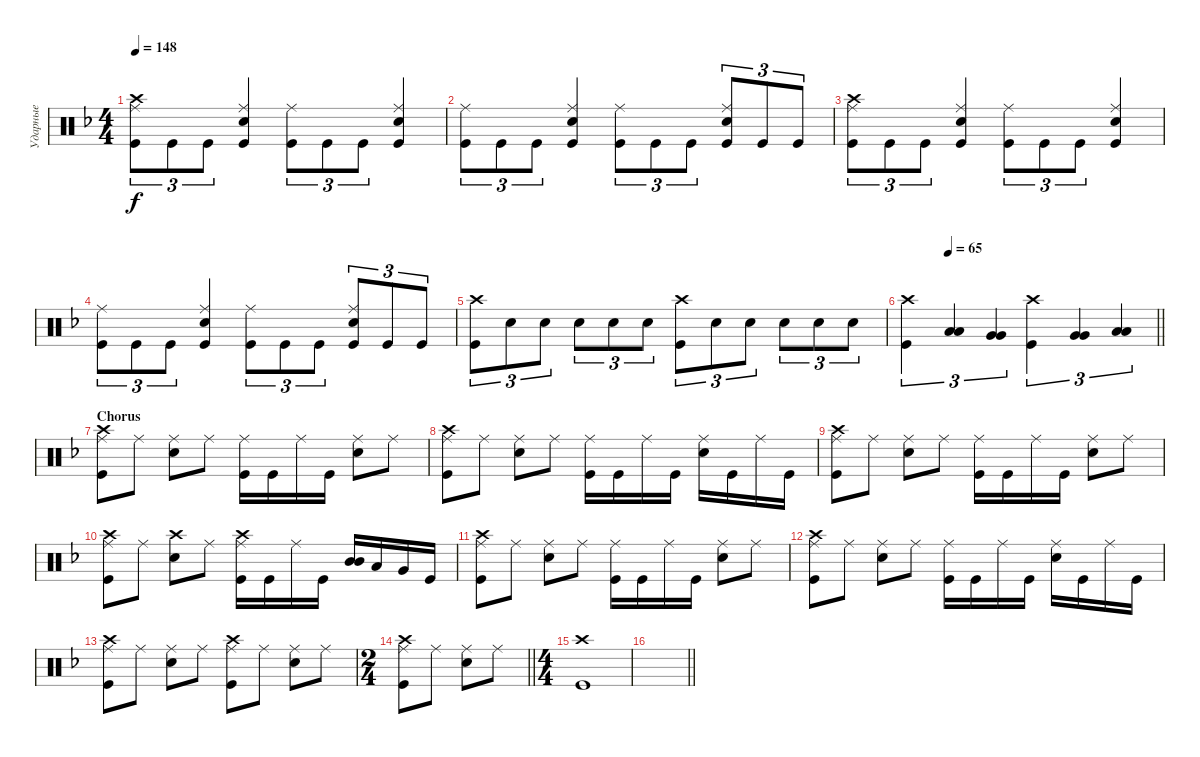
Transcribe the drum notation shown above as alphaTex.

\track ("Ударные" "Ударные") {instrument percussion}
\staff {score}
\articulation defaults
\ts (4 4)
\tempo 148
\clef neutral
\ks dminor
("Kick (hit)" "Ride (middle)" "Crash high (hit)").8{tu (3 2) dy f} "Kick (hit)".8{tu (3 2)} "Kick (hit)".8{tu (3 2)} ("Kick (hit)" "Snare (hit) 2" "Ride (middle)").4 ("Kick (hit)" "Ride (middle)").8{tu (3 2)} "Kick (hit)".8{tu (3 2)} "Kick (hit)".8{tu (3 2)} ("Kick (hit)" "Snare (hit) 2" "Ride (middle)").4 |
("Kick (hit)" "Ride (middle)").8{tu (3 2)} "Kick (hit)".8{tu (3 2)} "Kick (hit)".8{tu (3 2)} ("Kick (hit)" "Snare (hit) 2" "Ride (middle)").4 ("Kick (hit)" "Ride (middle)").8{tu (3 2)} "Kick (hit)".8{tu (3 2)} "Kick (hit)".8{tu (3 2)} ("Kick (hit)" "Snare (hit) 2" "Ride (middle)").8{tu (3 2)} "Kick (hit)".8{tu (3 2)} "Kick (hit)".8{tu (3 2)} |
("Kick (hit)" "Ride (middle)" "Crash high (hit)").8{tu (3 2)} "Kick (hit)".8{tu (3 2)} "Kick (hit)".8{tu (3 2)} ("Kick (hit)" "Snare (hit) 2" "Ride (middle)").4 ("Kick (hit)" "Ride (middle)").8{tu (3 2)} "Kick (hit)".8{tu (3 2)} "Kick (hit)".8{tu (3 2)} ("Kick (hit)" "Snare (hit) 2" "Ride (middle)").4 |
("Kick (hit)" "Ride (middle)").8{tu (3 2)} "Kick (hit)".8{tu (3 2)} "Kick (hit)".8{tu (3 2)} ("Kick (hit)" "Snare (hit) 2" "Ride (middle)").4 ("Kick (hit)" "Ride (middle)").8{tu (3 2)} "Kick (hit)".8{tu (3 2)} "Kick (hit)".8{tu (3 2)} ("Kick (hit)" "Snare (hit) 2" "Ride (middle)").8{tu (3 2)} "Kick (hit)".8{tu (3 2)} "Kick (hit)".8{tu (3 2)} |
("Kick (hit)" "Crash high (hit)").8{tu (3 2)} "Snare (hit) 2".8{tu (3 2)} "Snare (hit) 2".8{tu (3 2)} "Snare (hit) 2".8{tu (3 2)} "Snare (hit) 2".8{tu (3 2)} "Snare (hit) 2".8{tu (3 2)} ("Kick (hit)" "Crash high (hit)").8{tu (3 2)} "Snare (hit) 2".8{tu (3 2)} "Snare (hit) 2".8{tu (3 2)} "Snare (hit) 2".8{tu (3 2)} "Snare (hit) 2".8{tu (3 2)} "Snare (hit) 2".8{tu (3 2)} |
\tempo (65 0.16666666666666666)
\barLineRight lightlight
("Kick (hit)" "Crash high (hit)").4{tu (3 2)} ("Low Tom (hit)" "Low Tom (hit)").4{tu (3 2) bd 60} ("Very Low Tom (hit)" "Very Low Tom (hit)").4{tu (3 2) bd 60} ("Kick (hit)" "Crash high (hit)").4{tu (3 2)} ("Very Low Tom (hit)" "Very Low Tom (hit)").4{tu (3 2) bd 60} ("Low Floor Tom (hit)" "Low Floor Tom (hit)").4{tu (3 2) bd 60} |
\section ("" "Chorus")
("Kick (hit)" "Crash high (hit)" "Ride (middle)").8 "Ride (middle)".8 ("Ride (middle)" "Snare (hit) 2").8 "Ride (middle)".8 ("Ride (middle)" "Kick (hit)").16 "Kick (hit)".16 "Ride (middle)".16 "Kick (hit)".16 ("Snare (hit) 2" "Ride (middle)").8 "Ride (middle)".8 |
("Kick (hit)" "Crash high (hit)" "Ride (middle)").8 "Ride (middle)".8 ("Ride (middle)" "Snare (hit) 2").8 "Ride (middle)".8 ("Ride (middle)" "Kick (hit)").16 "Kick (hit)".16 "Ride (middle)".16 "Kick (hit)".16 ("Snare (hit) 2" "Ride (middle)").16 "Kick (hit)".16 "Ride (middle)".16 "Kick (hit)".16 |
("Kick (hit)" "Crash high (hit)" "Ride (middle)").8 "Ride (middle)".8 ("Ride (middle)" "Snare (hit) 2").8 "Ride (middle)".8 ("Ride (middle)" "Kick (hit)").16 "Kick (hit)".16 "Ride (middle)".16 "Kick (hit)".16 ("Snare (hit) 2" "Ride (middle)").8 "Ride (middle)".8 |
("Kick (hit)" "Ride (middle)" "Crash high (hit)").8 "Ride (middle)".8 ("Snare (hit) 2" "Crash high (hit)").8 "Ride (middle)".8 ("Ride (middle)" "Kick (hit)" "Crash high (hit)").16 "Kick (hit)".16 "Ride (middle)".16 "Kick (hit)".16 ("Mid Tom (hit)" "Mid Tom (hit)").16{bd 480} "Low Tom (hit)".16 "Very Low Tom (hit)".16 "Kick (hit)".16 |
("Kick (hit)" "Crash high (hit)" "Ride (middle)").8 "Ride (middle)".8 ("Ride (middle)" "Snare (hit) 2").8 "Ride (middle)".8 ("Ride (middle)" "Kick (hit)").16 "Kick (hit)".16 "Ride (middle)".16 "Kick (hit)".16 ("Snare (hit) 2" "Ride (middle)").8 "Ride (middle)".8 |
("Kick (hit)" "Crash high (hit)" "Ride (middle)").8 "Ride (middle)".8 ("Ride (middle)" "Snare (hit) 2").8 "Ride (middle)".8 ("Ride (middle)" "Kick (hit)").16 "Kick (hit)".16 "Ride (middle)".16 "Kick (hit)".16 ("Snare (hit) 2" "Ride (middle)").16 "Kick (hit)".16 "Ride (middle)".16 "Kick (hit)".16 |
("Kick (hit)" "Crash high (hit)" "Ride (middle)").8 "Ride (middle)".8 ("Ride (middle)" "Snare (hit) 2").8 "Ride (middle)".8 ("Kick (hit)" "Crash high (hit)" "Ride (middle)").8 "Ride (middle)".8 ("Ride (middle)" "Snare (hit) 2").8 "Ride (middle)".8 |
\ts (2 4)
\barLineRight lightlight
("Kick (hit)" "Crash high (hit)" "Ride (middle)").8 "Ride (middle)".8 ("Ride (middle)" "Snare (hit) 2").8 "Ride (middle)".8 |
\ts (4 4)
("Kick (hit)" "Crash high (hit)").1 |
\barLineRight lightlight
